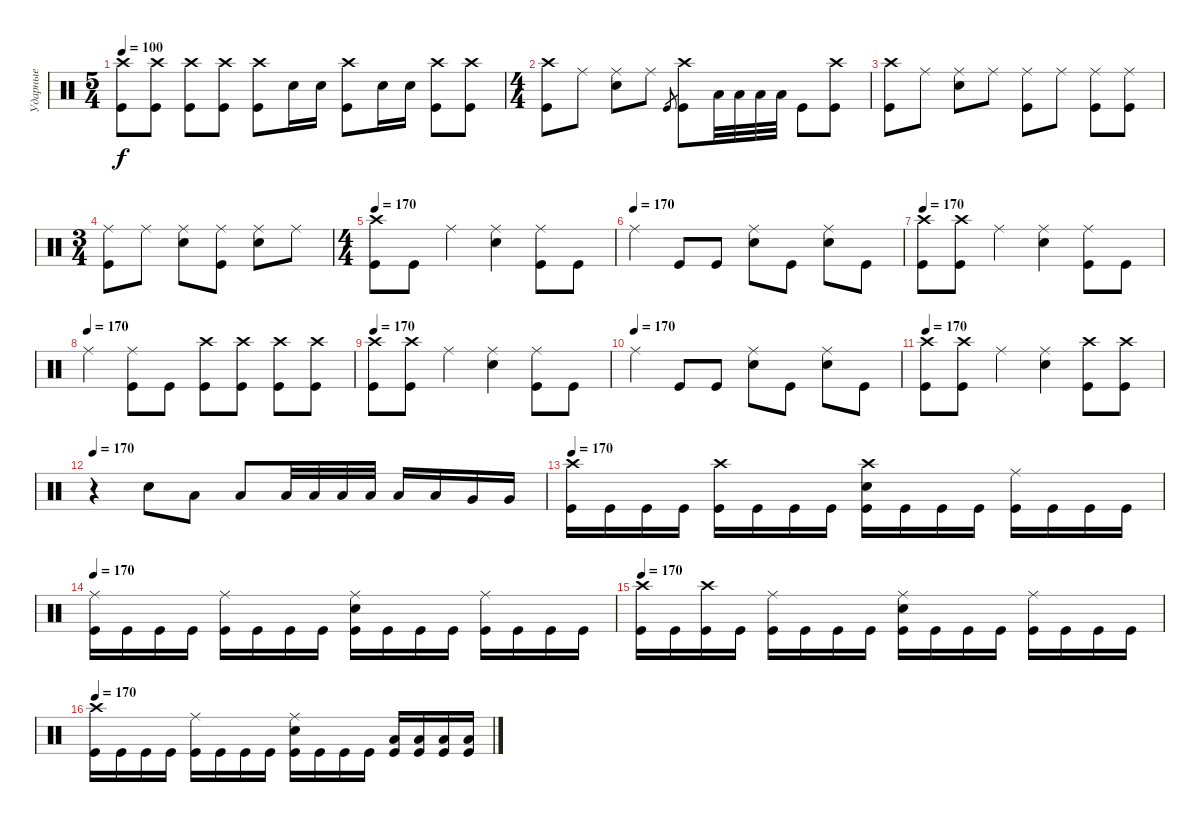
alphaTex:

\track ("Ударные" "Ударные") {instrument percussion}
\staff {score}
\articulation defaults
\ts (5 4)
\tempo 100
\clef neutral
\ks c
("Crash high (hit)" "Kick (hit)").8{dy f} ("Crash high (hit)" "Kick (hit)").8 ("Crash high (hit)" "Kick (hit)").8 ("Crash high (hit)" "Kick (hit)").8 ("Crash high (hit)" "Kick (hit)").8 "Electric Snare (hit)".16 "Electric Snare (hit)".16 ("Crash high (hit)" "Kick (hit)").8 "Electric Snare (hit)".16 "Electric Snare (hit)".16 ("Crash high (hit)" "Kick (hit)").8 ("Crash high (hit)" "Kick (hit)").8 |
\ts (4 4)
("Crash high (hit)" "Kick (hit)").8 "Ride (middle)".8 ("Ride (middle)" "Electric Snare (hit)").8 "Ride (middle)".8 "Kick (hit)".8{gr} ("Crash high (hit)" "Kick (hit)").8 "Low Tom (hit)".32 "Low Tom (hit)".32 "Low Tom (hit)".32 "Low Tom (hit)".32 "Kick (hit)".8 ("Crash high (hit)" "Kick (hit)").8 |
("Crash high (hit)" "Kick (hit)").8 "Ride (middle)".8 ("Ride (middle)" "Electric Snare (hit)").8 "Ride (middle)".8 ("Ride (middle)" "Kick (hit)").8 "Ride (middle)".8 ("Ride (middle)" "Kick (hit)").8 ("Ride (middle)" "Kick (hit)").8 |
\ts (3 4)
("Ride (middle)" "Kick (hit)").8 "Ride (middle)".8 ("Ride (middle)" "Electric Snare (hit)").8 ("Ride (middle)" "Kick (hit)").8 ("Ride (middle)" "Electric Snare (hit)").8 "Ride (middle)".8 |
\ts (4 4)
\tempo 170
("Crash high (hit)" "Kick (hit)").8 "Kick (hit)".8 "Ride (middle)".4 ("Ride (middle)" "Electric Snare (hit)").4 ("Ride (middle)" "Kick (hit)").8 "Kick (hit)".8 |
\tempo (170)
"Ride (middle)".4 "Kick (hit)".8 "Kick (hit)".8 ("Ride (middle)" "Electric Snare (hit)").8 "Kick (hit)".8 ("Ride (middle)" "Electric Snare (hit)").8 "Kick (hit)".8 |
\tempo 170
("Crash high (hit)" "Kick (hit)").8 ("Crash high (hit)" "Kick (hit)").8 "Ride (middle)".4 ("Ride (middle)" "Electric Snare (hit)").4 ("Ride (middle)" "Kick (hit)").8 "Kick (hit)".8 |
\tempo (170)
"Ride (middle)".4 ("Ride (middle)" "Kick (hit)").8 "Kick (hit)".8 ("Crash high (hit)" "Kick (hit)").8 ("Crash high (hit)" "Kick (hit)").8 ("Crash high (hit)" "Kick (hit)").8 ("Crash high (hit)" "Kick (hit)").8 |
\tempo 170
("Crash high (hit)" "Kick (hit)").8 ("Crash high (hit)" "Kick (hit)").8 "Ride (middle)".4 ("Ride (middle)" "Electric Snare (hit)").4 ("Ride (middle)" "Kick (hit)").8 "Kick (hit)".8 |
\tempo (170)
"Ride (middle)".4 "Kick (hit)".8 "Kick (hit)".8 ("Ride (middle)" "Electric Snare (hit)").8 "Kick (hit)".8 ("Ride (middle)" "Electric Snare (hit)").8 "Kick (hit)".8 |
\tempo 170
("Crash high (hit)" "Kick (hit)").8 ("Crash high (hit)" "Kick (hit)").8 "Ride (middle)".4 ("Ride (middle)" "Electric Snare (hit)").4 ("Crash high (hit)" "Kick (hit)").8 ("Crash high (hit)" "Kick (hit)").8 |
\tempo 170
r.4 "Electric Snare (hit)".8 "Low Tom (hit)".8 "Low Tom (hit)".8 "Low Tom (hit)".32 "Low Tom (hit)".32 "Low Tom (hit)".32 "Low Tom (hit)".32 "Low Tom (hit)".16 "Low Tom (hit)".16 "Very Low Tom (hit)".16 "Very Low Tom (hit)".16 |
\tempo 170
("Crash high (hit)" "Kick (hit)").16 "Kick (hit)".16 "Kick (hit)".16 "Kick (hit)".16 ("Crash high (hit)" "Kick (hit)").16 "Kick (hit)".16 "Kick (hit)".16 "Kick (hit)".16 ("Crash high (hit)" "Electric Snare (hit)" "Kick (hit)").16 "Kick (hit)".16 "Kick (hit)".16 "Kick (hit)".16 ("Ride (middle)" "Kick (hit)").16 "Kick (hit)".16 "Kick (hit)".16 "Kick (hit)".16 |
\tempo 170
("Ride (middle)" "Kick (hit)").16 "Kick (hit)".16 "Kick (hit)".16 "Kick (hit)".16 ("Ride (middle)" "Kick (hit)").16 "Kick (hit)".16 "Kick (hit)".16 "Kick (hit)".16 ("Ride (middle)" "Electric Snare (hit)" "Kick (hit)").16 "Kick (hit)".16 "Kick (hit)".16 "Kick (hit)".16 ("Ride (middle)" "Kick (hit)").16 "Kick (hit)".16 "Kick (hit)".16 "Kick (hit)".16 |
\tempo 170
("Crash high (hit)" "Kick (hit)").16 "Kick (hit)".16 ("Crash high (hit)" "Kick (hit)").16 "Kick (hit)".16 ("Ride (middle)" "Kick (hit)").16 "Kick (hit)".16 "Kick (hit)".16 "Kick (hit)".16 ("Ride (middle)" "Electric Snare (hit)" "Kick (hit)").16 "Kick (hit)".16 "Kick (hit)".16 "Kick (hit)".16 ("Ride (middle)" "Kick (hit)").16 "Kick (hit)".16 "Kick (hit)".16 "Kick (hit)".16 |
\tempo 170
("Crash high (hit)" "Kick (hit)").16 "Kick (hit)".16 "Kick (hit)".16 "Kick (hit)".16 ("Ride (middle)" "Kick (hit)").16 "Kick (hit)".16 "Kick (hit)".16 "Kick (hit)".16 ("Ride (middle)" "Electric Snare (hit)" "Kick (hit)").16 "Kick (hit)".16 "Kick (hit)".16 "Kick (hit)".16 ("Low Tom (hit)" "Kick (hit)").16 ("Low Tom (hit)" "Kick (hit)").16 ("Low Tom (hit)" "Kick (hit)").16 ("Low Tom (hit)" "Kick (hit)").16
